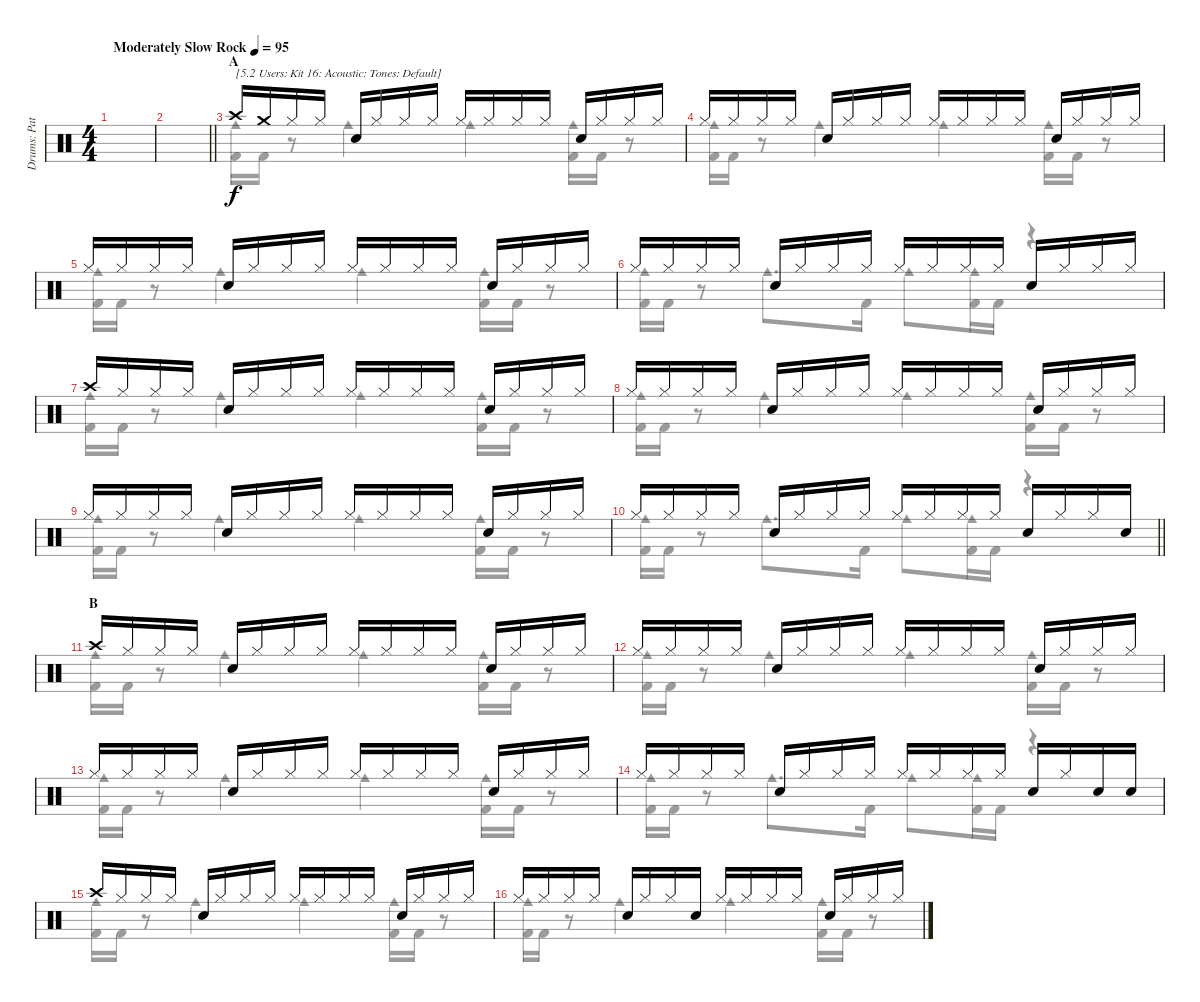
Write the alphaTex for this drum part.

\track ("Drums: Pat" "Drums: Pat") {instrument percussion}
\staff {score}
\articulation defaults
\voice
\ts (4 4)
\tempo (95 "Moderately Slow Rock")
\clef neutral
\ks c
|
\barLineRight lightlight
|
\section ("" "A")
"Crash high (hit)".16{txt "[5.2 Users: Kit 16: Acoustic: Tones: Default]"} "Crash medium (hit)".16 "Hi-Hat (closed)".16 "Hi-Hat (closed)".16 "Snare (hit) 2".16 "Hi-Hat (closed)".16 "Hi-Hat (closed)".16 "Hi-Hat (closed)".16 "Hi-Hat (closed)".16 "Hi-Hat (closed)".16 "Hi-Hat (closed)".16 "Hi-Hat (closed)".16 "Snare (hit) 2".16 "Hi-Hat (closed)".16 "Hi-Hat (closed)".16 "Hi-Hat (closed)".16 |
"Hi-Hat (closed)".16 "Hi-Hat (closed)".16 "Hi-Hat (closed)".16 "Hi-Hat (closed)".16 "Snare (hit) 2".16 "Hi-Hat (closed)".16 "Hi-Hat (closed)".16 "Hi-Hat (closed)".16 "Hi-Hat (closed)".16 "Hi-Hat (closed)".16 "Hi-Hat (closed)".16 "Hi-Hat (closed)".16 "Snare (hit) 2".16 "Hi-Hat (closed)".16 "Hi-Hat (closed)".16 "Hi-Hat (closed)".16 |
"Hi-Hat (closed)".16 "Hi-Hat (closed)".16 "Hi-Hat (closed)".16 "Hi-Hat (closed)".16 "Snare (hit) 2".16 "Hi-Hat (closed)".16 "Hi-Hat (closed)".16 "Hi-Hat (closed)".16 "Hi-Hat (closed)".16 "Hi-Hat (closed)".16 "Hi-Hat (closed)".16 "Hi-Hat (closed)".16 "Snare (hit) 2".16 "Hi-Hat (closed)".16 "Hi-Hat (closed)".16 "Hi-Hat (closed)".16 |
"Hi-Hat (closed)".16 "Hi-Hat (closed)".16 "Hi-Hat (closed)".16 "Hi-Hat (closed)".16 "Snare (hit) 2".16 "Hi-Hat (closed)".16 "Hi-Hat (closed)".16 "Hi-Hat (closed)".16 "Hi-Hat (closed)".16 "Hi-Hat (closed)".16 "Hi-Hat (closed)".16 "Hi-Hat (closed)".16 "Snare (hit) 2".16 "Hi-Hat (closed)".16 "Hi-Hat (closed)".16 "Hi-Hat (closed)".16 |
"Crash high (hit)".16 "Hi-Hat (closed)".16 "Hi-Hat (closed)".16 "Hi-Hat (closed)".16 "Snare (hit) 2".16 "Hi-Hat (closed)".16 "Hi-Hat (closed)".16 "Hi-Hat (closed)".16 "Hi-Hat (closed)".16 "Hi-Hat (closed)".16 "Hi-Hat (closed)".16 "Hi-Hat (closed)".16 "Snare (hit) 2".16 "Hi-Hat (closed)".16 "Hi-Hat (closed)".16 "Hi-Hat (closed)".16 |
"Hi-Hat (closed)".16 "Hi-Hat (closed)".16 "Hi-Hat (closed)".16 "Hi-Hat (closed)".16 "Snare (hit) 2".16 "Hi-Hat (closed)".16 "Hi-Hat (closed)".16 "Hi-Hat (closed)".16 "Hi-Hat (closed)".16 "Hi-Hat (closed)".16 "Hi-Hat (closed)".16 "Hi-Hat (closed)".16 "Snare (hit) 2".16 "Hi-Hat (closed)".16 "Hi-Hat (closed)".16 "Hi-Hat (closed)".16 |
"Hi-Hat (closed)".16 "Hi-Hat (closed)".16 "Hi-Hat (closed)".16 "Hi-Hat (closed)".16 "Snare (hit) 2".16 "Hi-Hat (closed)".16 "Hi-Hat (closed)".16 "Hi-Hat (closed)".16 "Hi-Hat (closed)".16 "Hi-Hat (closed)".16 "Hi-Hat (closed)".16 "Hi-Hat (closed)".16 "Snare (hit) 2".16 "Hi-Hat (closed)".16 "Hi-Hat (closed)".16 "Hi-Hat (closed)".16 |
\barLineRight lightlight "Hi-Hat (closed)".16 "Hi-Hat (closed)".16 "Hi-Hat (closed)".16 "Hi-Hat (closed)".16 "Snare (hit) 2".16 "Hi-Hat (closed)".16 "Hi-Hat (closed)".16 "Hi-Hat (closed)".16 "Hi-Hat (closed)".16 "Hi-Hat (closed)".16 "Hi-Hat (closed)".16 "Hi-Hat (closed)".16 "Snare (hit) 2".16 "Hi-Hat (closed)".16 "Hi-Hat (closed)".16 "Snare (hit) 2".16
|
\section ("" "B")
"Crash high (hit)".16 "Hi-Hat (closed)".16 "Hi-Hat (closed)".16 "Hi-Hat (closed)".16 "Snare (hit) 2".16 "Hi-Hat (closed)".16 "Hi-Hat (closed)".16 "Hi-Hat (closed)".16 "Hi-Hat (closed)".16 "Hi-Hat (closed)".16 "Hi-Hat (closed)".16 "Hi-Hat (closed)".16 "Snare (hit) 2".16 "Hi-Hat (closed)".16 "Hi-Hat (closed)".16 "Hi-Hat (closed)".16 |
"Hi-Hat (closed)".16 "Hi-Hat (closed)".16 "Hi-Hat (closed)".16 "Hi-Hat (closed)".16 "Snare (hit) 2".16 "Hi-Hat (closed)".16 "Hi-Hat (closed)".16 "Hi-Hat (closed)".16 "Hi-Hat (closed)".16 "Hi-Hat (closed)".16 "Hi-Hat (closed)".16 "Hi-Hat (closed)".16 "Snare (hit) 2".16 "Hi-Hat (closed)".16 "Hi-Hat (closed)".16 "Hi-Hat (closed)".16 |
"Hi-Hat (closed)".16 "Hi-Hat (closed)".16 "Hi-Hat (closed)".16 "Hi-Hat (closed)".16 "Snare (hit) 2".16 "Hi-Hat (closed)".16 "Hi-Hat (closed)".16 "Hi-Hat (closed)".16 "Hi-Hat (closed)".16 "Hi-Hat (closed)".16 "Hi-Hat (closed)".16 "Hi-Hat (closed)".16 "Snare (hit) 2".16 "Hi-Hat (closed)".16 "Hi-Hat (closed)".16 "Hi-Hat (closed)".16 |
"Hi-Hat (closed)".16 "Hi-Hat (closed)".16 "Hi-Hat (closed)".16 "Hi-Hat (closed)".16 "Snare (hit) 2".16 "Hi-Hat (closed)".16 "Hi-Hat (closed)".16 "Hi-Hat (closed)".16 "Hi-Hat (closed)".16 "Hi-Hat (closed)".16 "Hi-Hat (closed)".16 "Hi-Hat (closed)".16 "Snare (hit) 2".16 "Hi-Hat (closed)".16 "Snare (hit) 2".16 "Snare (hit) 2".16 |
"Crash high (hit)".16 "Hi-Hat (closed)".16 "Hi-Hat (closed)".16 "Hi-Hat (closed)".16 "Snare (hit) 2".16 "Hi-Hat (closed)".16 "Hi-Hat (closed)".16 "Hi-Hat (closed)".16 "Hi-Hat (closed)".16 "Hi-Hat (closed)".16 "Hi-Hat (closed)".16 "Hi-Hat (closed)".16 "Snare (hit) 2".16 "Hi-Hat (closed)".16 "Hi-Hat (closed)".16 "Hi-Hat (closed)".16 |
"Hi-Hat (closed)".16 "Hi-Hat (closed)".16 "Hi-Hat (closed)".16 "Hi-Hat (closed)".16 "Snare (hit) 2".16 "Hi-Hat (closed)".16 "Hi-Hat (closed)".16 "Snare (hit) 2".16 "Hi-Hat (closed)".16 "Hi-Hat (closed)".16 "Hi-Hat (closed)".16 "Hi-Hat (closed)".16 "Snare (hit) 2".16 "Hi-Hat (closed)".16 "Hi-Hat (closed)".16 "Hi-Hat (closed)".16
\voice
\clef neutral
\ottava regular
\simile none
\ks c
|
\barLineRight lightlight
|
("Kick (hit) 2" "Cowbell medium (hit)").16 "Kick (hit) 2".16 r.8 "Cowbell medium (hit)".4 "Cowbell medium (hit)".4 ("Kick (hit) 2" "Cowbell medium (hit)").16 "Kick (hit) 2".16 r.8 |
("Kick (hit) 2" "Cowbell medium (hit)").16 "Kick (hit) 2".16 r.8 "Cowbell medium (hit)".4 "Cowbell medium (hit)".4 ("Kick (hit) 2" "Cowbell medium (hit)").16 "Kick (hit) 2".16 r.8 |
("Kick (hit) 2" "Cowbell medium (hit)").16 "Kick (hit) 2".16 r.8 "Cowbell medium (hit)".4 "Cowbell medium (hit)".4 ("Kick (hit) 2" "Cowbell medium (hit)").16 "Kick (hit) 2".16 r.8 |
("Kick (hit) 2" "Cowbell medium (hit)").16 "Kick (hit) 2".16 r.8 "Cowbell medium (hit)".8{d} "Kick (hit) 2".16 "Cowbell medium (hit)".8 ("Kick (hit) 2" "Cowbell medium (hit)").16 "Kick (hit) 2".16 r.4 |
("Kick (hit) 2" "Cowbell medium (hit)").16 "Kick (hit) 2".16 r.8 "Cowbell medium (hit)".4 "Cowbell medium (hit)".4 ("Kick (hit) 2" "Cowbell medium (hit)").16 "Kick (hit) 2".16 r.8 |
("Kick (hit) 2" "Cowbell medium (hit)").16 "Kick (hit) 2".16 r.8 "Cowbell medium (hit)".4 "Cowbell medium (hit)".4 ("Kick (hit) 2" "Cowbell medium (hit)").16 "Kick (hit) 2".16 r.8 |
("Kick (hit) 2" "Cowbell medium (hit)").16 "Kick (hit) 2".16 r.8 "Cowbell medium (hit)".4 "Cowbell medium (hit)".4 ("Kick (hit) 2" "Cowbell medium (hit)").16 "Kick (hit) 2".16 r.8 |
\barLineRight lightlight
("Kick (hit) 2" "Cowbell medium (hit)").16 "Kick (hit) 2".16 r.8 "Cowbell medium (hit)".8{d} "Kick (hit) 2".16 "Cowbell medium (hit)".8 ("Kick (hit) 2" "Cowbell medium (hit)").16 "Kick (hit) 2".16 r.4 |
("Kick (hit) 2" "Cowbell medium (hit)").16 "Kick (hit) 2".16 r.8 "Cowbell medium (hit)".4 "Cowbell medium (hit)".4 ("Kick (hit) 2" "Cowbell medium (hit)").16 "Kick (hit) 2".16 r.8 |
("Kick (hit) 2" "Cowbell medium (hit)").16 "Kick (hit) 2".16 r.8 "Cowbell medium (hit)".4 "Cowbell medium (hit)".4 ("Kick (hit) 2" "Cowbell medium (hit)").16 "Kick (hit) 2".16 r.8 |
("Kick (hit) 2" "Cowbell medium (hit)").16 "Kick (hit) 2".16 r.8 "Cowbell medium (hit)".4 "Cowbell medium (hit)".4 ("Kick (hit) 2" "Cowbell medium (hit)").16 "Kick (hit) 2".16 r.8 |
("Kick (hit) 2" "Cowbell medium (hit)").16 "Kick (hit) 2".16 r.8 "Cowbell medium (hit)".8{d} "Kick (hit) 2".16 "Cowbell medium (hit)".8 ("Kick (hit) 2" "Cowbell medium (hit)").16 "Kick (hit) 2".16 r.4 |
("Kick (hit) 2" "Cowbell medium (hit)").16 "Kick (hit) 2".16 r.8 "Cowbell medium (hit)".4 "Cowbell medium (hit)".4 ("Kick (hit) 2" "Cowbell medium (hit)").16 "Kick (hit) 2".16 r.8 |
("Kick (hit) 2" "Cowbell medium (hit)").16 "Kick (hit) 2".16 r.8 "Cowbell medium (hit)".4 "Cowbell medium (hit)".4 ("Kick (hit) 2" "Cowbell medium (hit)").16 "Kick (hit) 2".16 r.8
